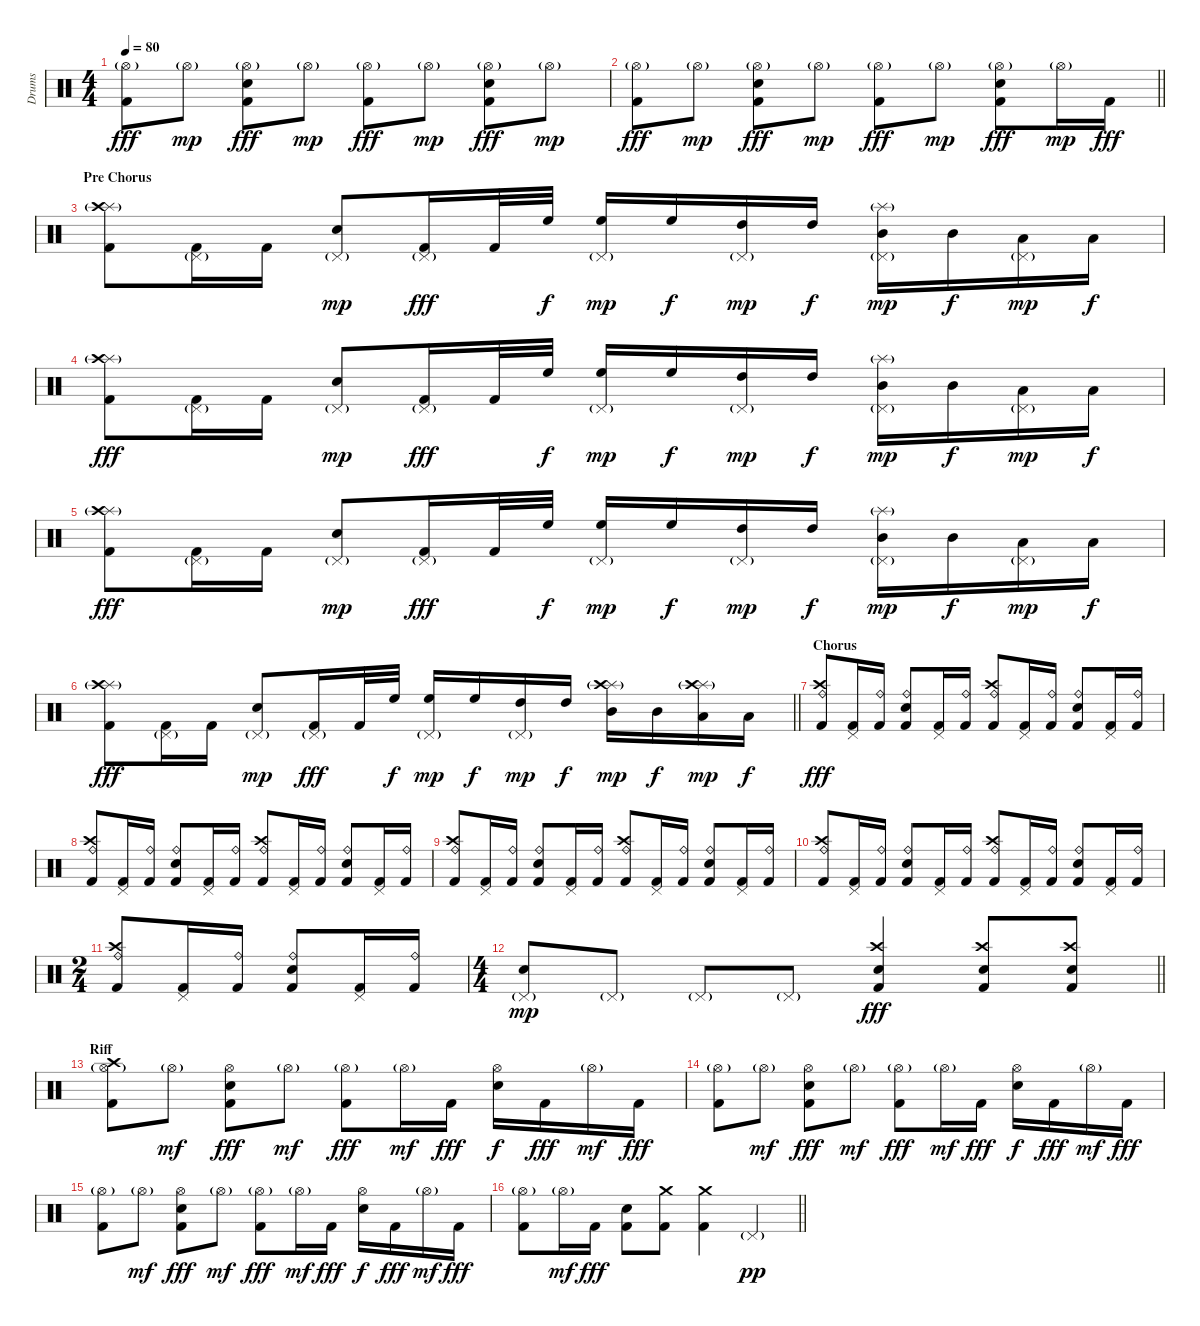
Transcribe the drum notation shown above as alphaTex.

\track ("Drums" "Drums") {instrument percussion}
\staff {score}
\articulation defaults
\ts (4 4)
\tempo 80
\clef neutral
\ks c
("Hi-Hat (open)"{g} "Kick (hit) 2").8{dy fff} "Hi-Hat (open)"{g}.8{dy mp} ("Hi-Hat (open)"{g} "Snare (hit) 2" "Kick (hit) 2").8{dy fff} "Hi-Hat (open)"{g}.8{dy mp} ("Hi-Hat (open)"{g} "Kick (hit) 2").8{dy fff} "Hi-Hat (open)"{g}.8{dy mp} ("Hi-Hat (open)"{g} "Snare (hit) 2" "Kick (hit) 2").8{dy fff} "Hi-Hat (open)"{g}.8{dy mp} |
\barLineRight lightlight
("Hi-Hat (open)"{g} "Kick (hit) 2").8{dy fff} "Hi-Hat (open)"{g}.8{dy mp} ("Hi-Hat (open)"{g} "Snare (hit) 2" "Kick (hit) 2").8{dy fff} "Hi-Hat (open)"{g}.8{dy mp} ("Hi-Hat (open)"{g} "Kick (hit) 2").8{dy fff} "Hi-Hat (open)"{g}.8{dy mp} ("Hi-Hat (open)"{g} "Snare (hit) 2" "Kick (hit) 2").8{dy fff} "Hi-Hat (open)"{g}.16{dy mp} "Kick (hit) 2".16{dy fff} |
\section ("" "Pre Chorus")
("Splash (hit)"{g} "Crash high (hit)" "Kick (hit) 2").8 ("Pedal Hi-Hat (hit)"{g} "Kick (hit) 2").16 "Kick (hit) 2".16 ("Pedal Hi-Hat (hit)"{g} "Electric Snare (hit)").8{dy mp} ("Pedal Hi-Hat (hit)"{g} "Kick (hit) 2").16{dy fff} "Kick (hit) 2".32 "High Floor Tom (hit)".32{dy f} ("Pedal Hi-Hat (hit)"{g} "High Floor Tom (hit)").16{dy mp} "High Floor Tom (hit)".16{dy f} ("Pedal Hi-Hat (hit)"{g} "High Tom (hit)").16{dy mp} "High Tom (hit)".16{dy f} ("Splash (hit)"{g} "Pedal Hi-Hat (hit)"{g} "Mid Tom (hit)").16{dy mp} "Mid Tom (hit)".16{dy f} ("Pedal Hi-Hat (hit)"{g} "Low Tom (hit)").16{dy mp} "Low Tom (hit)".16{dy f} |
("Splash (hit)"{g} "Crash high (hit)" "Kick (hit) 2").8{dy fff} ("Pedal Hi-Hat (hit)"{g} "Kick (hit) 2").16 "Kick (hit) 2".16 ("Pedal Hi-Hat (hit)"{g} "Electric Snare (hit)").8{dy mp} ("Pedal Hi-Hat (hit)"{g} "Kick (hit) 2").16{dy fff} "Kick (hit) 2".32 "High Floor Tom (hit)".32{dy f} ("Pedal Hi-Hat (hit)"{g} "High Floor Tom (hit)").16{dy mp} "High Floor Tom (hit)".16{dy f} ("Pedal Hi-Hat (hit)"{g} "High Tom (hit)").16{dy mp} "High Tom (hit)".16{dy f} ("Splash (hit)"{g} "Pedal Hi-Hat (hit)"{g} "Mid Tom (hit)").16{dy mp} "Mid Tom (hit)".16{dy f} ("Pedal Hi-Hat (hit)"{g} "Low Tom (hit)").16{dy mp} "Low Tom (hit)".16{dy f} |
("Splash (hit)"{g} "Crash high (hit)" "Kick (hit) 2").8{dy fff} ("Pedal Hi-Hat (hit)"{g} "Kick (hit) 2").16 "Kick (hit) 2".16 ("Pedal Hi-Hat (hit)"{g} "Electric Snare (hit)").8{dy mp} ("Pedal Hi-Hat (hit)"{g} "Kick (hit) 2").16{dy fff} "Kick (hit) 2".32 "High Floor Tom (hit)".32{dy f} ("Pedal Hi-Hat (hit)"{g} "High Floor Tom (hit)").16{dy mp} "High Floor Tom (hit)".16{dy f} ("Pedal Hi-Hat (hit)"{g} "High Tom (hit)").16{dy mp} "High Tom (hit)".16{dy f} ("Splash (hit)"{g} "Pedal Hi-Hat (hit)"{g} "Mid Tom (hit)").16{dy mp} "Mid Tom (hit)".16{dy f} ("Pedal Hi-Hat (hit)"{g} "Low Tom (hit)").16{dy mp} "Low Tom (hit)".16{dy f} |
\barLineRight lightlight
("Splash (hit)"{g} "Crash high (hit)" "Kick (hit) 2").8{dy fff} ("Pedal Hi-Hat (hit)"{g} "Kick (hit) 2").16 "Kick (hit) 2".16 ("Pedal Hi-Hat (hit)"{g} "Electric Snare (hit)").8{dy mp} ("Pedal Hi-Hat (hit)"{g} "Kick (hit) 2").16{dy fff} "Kick (hit) 2".32 "High Floor Tom (hit)".32{dy f} ("Pedal Hi-Hat (hit)"{g} "High Floor Tom (hit)").16{dy mp} "High Floor Tom (hit)".16{dy f} ("Pedal Hi-Hat (hit)"{g} "High Tom (hit)").16{dy mp} "High Tom (hit)".16{dy f} ("Splash (hit)"{g} "Crash high (hit)"{g} "Mid Tom (hit)").16{dy mp} "Mid Tom (hit)".16{dy f} ("Splash (hit)"{g} "Crash high (hit)"{g} "Low Tom (hit)").16{dy mp} "Low Tom (hit)".16{dy f} |
\section ("" "Chorus")
("Crash high (hit)" "Ride (bell)" "Kick (hit) 2").8{dy fff} ("Pedal Hi-Hat (hit)" "Kick (hit) 2").16 ("Ride (bell)" "Kick (hit) 2").16 ("Ride (bell)" "Electric Snare (hit)" "Kick (hit) 2").8 ("Pedal Hi-Hat (hit)" "Kick (hit) 2").16 ("Ride (bell)" "Kick (hit) 2").16 ("Crash high (hit)" "Ride (bell)" "Kick (hit) 2").8 ("Pedal Hi-Hat (hit)" "Kick (hit) 2").16 ("Ride (bell)" "Kick (hit) 2").16 ("Ride (bell)" "Electric Snare (hit)" "Kick (hit) 2").8 ("Pedal Hi-Hat (hit)" "Kick (hit) 2").16 ("Ride (bell)" "Kick (hit) 2").16 |
("Crash high (hit)" "Ride (bell)" "Kick (hit) 2").8 ("Pedal Hi-Hat (hit)" "Kick (hit) 2").16 ("Ride (bell)" "Kick (hit) 2").16 ("Ride (bell)" "Electric Snare (hit)" "Kick (hit) 2").8 ("Pedal Hi-Hat (hit)" "Kick (hit) 2").16 ("Ride (bell)" "Kick (hit) 2").16 ("Crash high (hit)" "Ride (bell)" "Kick (hit) 2").8 ("Pedal Hi-Hat (hit)" "Kick (hit) 2").16 ("Ride (bell)" "Kick (hit) 2").16 ("Ride (bell)" "Electric Snare (hit)" "Kick (hit) 2").8 ("Pedal Hi-Hat (hit)" "Kick (hit) 2").16 ("Ride (bell)" "Kick (hit) 2").16 |
("Crash high (hit)" "Ride (bell)" "Kick (hit) 2").8 ("Pedal Hi-Hat (hit)" "Kick (hit) 2").16 ("Ride (bell)" "Kick (hit) 2").16 ("Ride (bell)" "Electric Snare (hit)" "Kick (hit) 2").8 ("Pedal Hi-Hat (hit)" "Kick (hit) 2").16 ("Ride (bell)" "Kick (hit) 2").16 ("Crash high (hit)" "Ride (bell)" "Kick (hit) 2").8 ("Pedal Hi-Hat (hit)" "Kick (hit) 2").16 ("Ride (bell)" "Kick (hit) 2").16 ("Ride (bell)" "Electric Snare (hit)" "Kick (hit) 2").8 ("Pedal Hi-Hat (hit)" "Kick (hit) 2").16 ("Ride (bell)" "Kick (hit) 2").16 |
("Crash high (hit)" "Ride (bell)" "Kick (hit) 2").8 ("Pedal Hi-Hat (hit)" "Kick (hit) 2").16 ("Ride (bell)" "Kick (hit) 2").16 ("Ride (bell)" "Electric Snare (hit)" "Kick (hit) 2").8 ("Pedal Hi-Hat (hit)" "Kick (hit) 2").16 ("Ride (bell)" "Kick (hit) 2").16 ("Crash high (hit)" "Ride (bell)" "Kick (hit) 2").8 ("Pedal Hi-Hat (hit)" "Kick (hit) 2").16 ("Ride (bell)" "Kick (hit) 2").16 ("Ride (bell)" "Electric Snare (hit)" "Kick (hit) 2").8 ("Pedal Hi-Hat (hit)" "Kick (hit) 2").16 ("Ride (bell)" "Kick (hit) 2").16 |
\ts (2 4)
("Crash high (hit)" "Ride (bell)" "Kick (hit) 2").8 ("Pedal Hi-Hat (hit)" "Kick (hit) 2").16 ("Ride (bell)" "Kick (hit) 2").16 ("Ride (bell)" "Electric Snare (hit)" "Kick (hit) 2").8 ("Pedal Hi-Hat (hit)" "Kick (hit) 2").16 ("Ride (bell)" "Kick (hit) 2").16 |
\ts (4 4)
\barLineRight lightlight
("Pedal Hi-Hat (hit)"{g} "Electric Snare (hit)").8{dy mp} "Pedal Hi-Hat (hit)"{g}.8 "Pedal Hi-Hat (hit)"{g}.8 "Pedal Hi-Hat (hit)"{g}.8 ("Crash high (hit)" "Electric Snare (hit)" "Kick (hit) 2").4{dy fff} ("Crash high (hit)" "Electric Snare (hit)" "Kick (hit) 2").8 ("Crash high (hit)" "Electric Snare (hit)" "Kick (hit) 2").8 |
\section ("" "Riff")
("Crash high (hit)" "Hi-Hat (open)"{g} "Kick (hit) 2").8 "Hi-Hat (open)"{g}.8{dy mf} ("Hi-Hat (open)" "Electric Snare (hit)" "Kick (hit) 2").8{dy fff} "Hi-Hat (open)"{g}.8{dy mf} ("Hi-Hat (open)"{g} "Kick (hit) 2").8{dy fff} "Hi-Hat (open)"{g}.16{dy mf} "Kick (hit) 2".16{dy fff} ("Hi-Hat (open)" "Electric Snare (hit)").16{dy f} "Kick (hit) 2".16{dy fff} "Hi-Hat (open)"{g}.16{dy mf} "Kick (hit) 2".16{dy fff} |
("Hi-Hat (open)"{g} "Kick (hit) 2").8 "Hi-Hat (open)"{g}.8{dy mf} ("Hi-Hat (open)" "Electric Snare (hit)" "Kick (hit) 2").8{dy fff} "Hi-Hat (open)"{g}.8{dy mf} ("Hi-Hat (open)"{g} "Kick (hit) 2").8{dy fff} "Hi-Hat (open)"{g}.16{dy mf} "Kick (hit) 2".16{dy fff} ("Hi-Hat (open)" "Electric Snare (hit)").16{dy f} "Kick (hit) 2".16{dy fff} "Hi-Hat (open)"{g}.16{dy mf} "Kick (hit) 2".16{dy fff} |
("Hi-Hat (open)"{g} "Kick (hit) 2").8 "Hi-Hat (open)"{g}.8{dy mf} ("Hi-Hat (open)" "Electric Snare (hit)" "Kick (hit) 2").8{dy fff} "Hi-Hat (open)"{g}.8{dy mf} ("Hi-Hat (open)"{g} "Kick (hit) 2").8{dy fff} "Hi-Hat (open)"{g}.16{dy mf} "Kick (hit) 2".16{dy fff} ("Hi-Hat (open)" "Electric Snare (hit)").16{dy f} "Kick (hit) 2".16{dy fff} "Hi-Hat (open)"{g}.16{dy mf} "Kick (hit) 2".16{dy fff} |
\barLineRight lightlight
("Hi-Hat (open)"{g} "Kick (hit) 2").8 "Hi-Hat (open)"{g}.16{dy mf} "Kick (hit) 2".16{dy fff} ("Electric Snare (hit)" "Kick (hit) 2").8 ("Crash medium (hit)" "Kick (hit) 2").8 ("Crash medium (hit)" "Kick (hit) 2").4 "Pedal Hi-Hat (hit)"{g}.4{dy pp}
